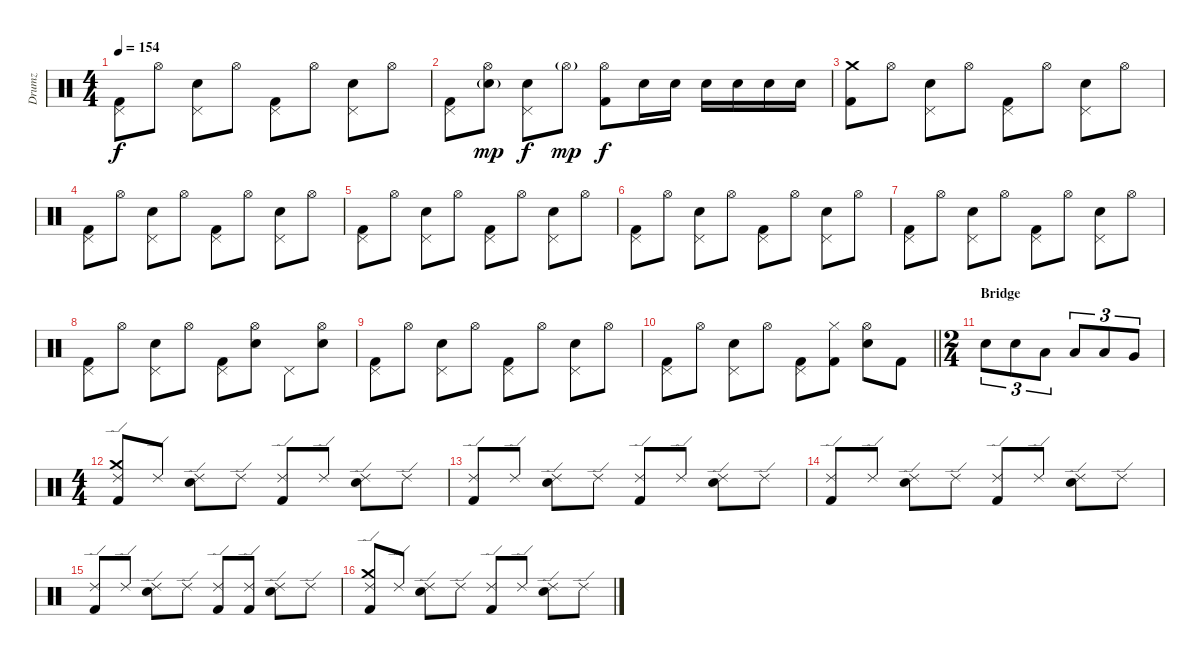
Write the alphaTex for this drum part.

\track ("Drumz" "Drumz") {instrument percussion}
\staff {score}
\articulation defaults
\ts (4 4)
\tempo 154
\clef neutral
\ks c
("Pedal Hi-Hat (hit)" "Kick (hit) 2").8{dy f} "Hi-Hat (open)".8 ("Pedal Hi-Hat (hit)" "Electric Snare (hit)").8 "Hi-Hat (open)".8 ("Pedal Hi-Hat (hit)" "Kick (hit) 2").8 "Hi-Hat (open)".8 ("Pedal Hi-Hat (hit)" "Electric Snare (hit)").8 "Hi-Hat (open)".8 |
("Pedal Hi-Hat (hit)" "Kick (hit) 2").8 ("Hi-Hat (open)" "Electric Snare (hit)"{g}).8{dy mp} ("Pedal Hi-Hat (hit)" "Electric Snare (hit)").8{dy f} "Hi-Hat (open)"{g}.8{dy mp} ("Hi-Hat (open)" "Kick (hit) 2").8{dy f} "Electric Snare (hit)".16 "Electric Snare (hit)".16 "Electric Snare (hit)".16 "Electric Snare (hit)".16 "Electric Snare (hit)".16 "Electric Snare (hit)".16 |
("Crash medium (hit)" "Kick (hit) 2").8 "Hi-Hat (open)".8 ("Pedal Hi-Hat (hit)" "Electric Snare (hit)").8 "Hi-Hat (open)".8 ("Pedal Hi-Hat (hit)" "Kick (hit) 2").8 "Hi-Hat (open)".8 ("Pedal Hi-Hat (hit)" "Electric Snare (hit)").8 "Hi-Hat (open)".8 |
("Pedal Hi-Hat (hit)" "Kick (hit) 2").8 "Hi-Hat (open)".8 ("Pedal Hi-Hat (hit)" "Electric Snare (hit)").8 "Hi-Hat (open)".8 ("Pedal Hi-Hat (hit)" "Kick (hit) 2").8 "Hi-Hat (open)".8 ("Pedal Hi-Hat (hit)" "Electric Snare (hit)").8 "Hi-Hat (open)".8 |
("Pedal Hi-Hat (hit)" "Kick (hit) 2").8 "Hi-Hat (open)".8 ("Pedal Hi-Hat (hit)" "Electric Snare (hit)").8 "Hi-Hat (open)".8 ("Pedal Hi-Hat (hit)" "Kick (hit) 2").8 "Hi-Hat (open)".8 ("Pedal Hi-Hat (hit)" "Electric Snare (hit)").8 "Hi-Hat (open)".8 |
("Pedal Hi-Hat (hit)" "Kick (hit) 2").8 "Hi-Hat (open)".8 ("Pedal Hi-Hat (hit)" "Electric Snare (hit)").8 "Hi-Hat (open)".8 ("Pedal Hi-Hat (hit)" "Kick (hit) 2").8 "Hi-Hat (open)".8 ("Pedal Hi-Hat (hit)" "Electric Snare (hit)").8 "Hi-Hat (open)".8 |
("Pedal Hi-Hat (hit)" "Kick (hit) 2").8 "Hi-Hat (open)".8 ("Pedal Hi-Hat (hit)" "Electric Snare (hit)").8 "Hi-Hat (open)".8 ("Pedal Hi-Hat (hit)" "Kick (hit) 2").8 "Hi-Hat (open)".8 ("Pedal Hi-Hat (hit)" "Electric Snare (hit)").8 "Hi-Hat (open)".8 |
("Pedal Hi-Hat (hit)" "Kick (hit) 2").8 "Hi-Hat (open)".8 ("Pedal Hi-Hat (hit)" "Electric Snare (hit)").8 "Hi-Hat (open)".8 ("Pedal Hi-Hat (hit)" "Kick (hit) 2").8 ("Hi-Hat (open)" "Electric Snare (hit)").8 "Pedal Hi-Hat (hit)".8 ("Hi-Hat (open)" "Electric Snare (hit)").8 |
("Pedal Hi-Hat (hit)" "Kick (hit) 2").8 "Hi-Hat (open)".8 ("Pedal Hi-Hat (hit)" "Electric Snare (hit)").8 "Hi-Hat (open)".8 ("Pedal Hi-Hat (hit)" "Kick (hit) 2").8 "Hi-Hat (open)".8 ("Pedal Hi-Hat (hit)" "Electric Snare (hit)").8 "Hi-Hat (open)".8 |
\barLineRight lightlight
("Pedal Hi-Hat (hit)" "Kick (hit) 2").8 "Hi-Hat (open)".8 ("Pedal Hi-Hat (hit)" "Electric Snare (hit)").8 "Hi-Hat (open)".8 ("Pedal Hi-Hat (hit)" "Kick (hit) 2").8 ("Hi-Hat (closed)" "Kick (hit) 2").8 ("Hi-Hat (open)" "Electric Snare (hit)").8 "Kick (hit) 2".8 |
\ts (2 4)
\section ("" "Bridge")
"Electric Snare (hit)".8{tu (3 2)} "Electric Snare (hit)".8{tu (3 2)} "Low Tom (hit)".8{tu (3 2)} "Low Tom (hit)".8{tu (3 2)} "Low Tom (hit)".8{tu (3 2)} "Very Low Tom (hit)".8{tu (3 2)} |
\ts (4 4)
("Crash medium (hit)" "Ride (edge) 2" "Kick (hit) 2").8 "Ride (edge) 2".8 ("Ride (edge) 2" "Electric Snare (hit)").8 "Ride (edge) 2".8 ("Ride (edge) 2" "Kick (hit) 2").8 "Ride (edge) 2".8 ("Ride (edge) 2" "Electric Snare (hit)").8 "Ride (edge) 2".8 |
("Ride (edge) 2" "Kick (hit) 2").8 "Ride (edge) 2".8 ("Ride (edge) 2" "Electric Snare (hit)").8 "Ride (edge) 2".8 ("Ride (edge) 2" "Kick (hit) 2").8 "Ride (edge) 2".8 ("Ride (edge) 2" "Electric Snare (hit)").8 "Ride (edge) 2".8 |
("Ride (edge) 2" "Kick (hit) 2").8 "Ride (edge) 2".8 ("Ride (edge) 2" "Electric Snare (hit)").8 "Ride (edge) 2".8 ("Ride (edge) 2" "Kick (hit) 2").8 "Ride (edge) 2".8 ("Ride (edge) 2" "Electric Snare (hit)").8 "Ride (edge) 2".8 |
("Ride (edge) 2" "Kick (hit) 2").8 "Ride (edge) 2".8 ("Ride (edge) 2" "Electric Snare (hit)").8 "Ride (edge) 2".8 ("Ride (edge) 2" "Kick (hit) 2").8 ("Ride (edge) 2" "Kick (hit) 2").8 ("Ride (edge) 2" "Electric Snare (hit)").8 "Ride (edge) 2".8 |
("Crash medium (hit)" "Ride (edge) 2" "Kick (hit) 2").8 "Ride (edge) 2".8 ("Ride (edge) 2" "Electric Snare (hit)").8 "Ride (edge) 2".8 ("Ride (edge) 2" "Kick (hit) 2").8 "Ride (edge) 2".8 ("Ride (edge) 2" "Electric Snare (hit)").8 "Ride (edge) 2".8
